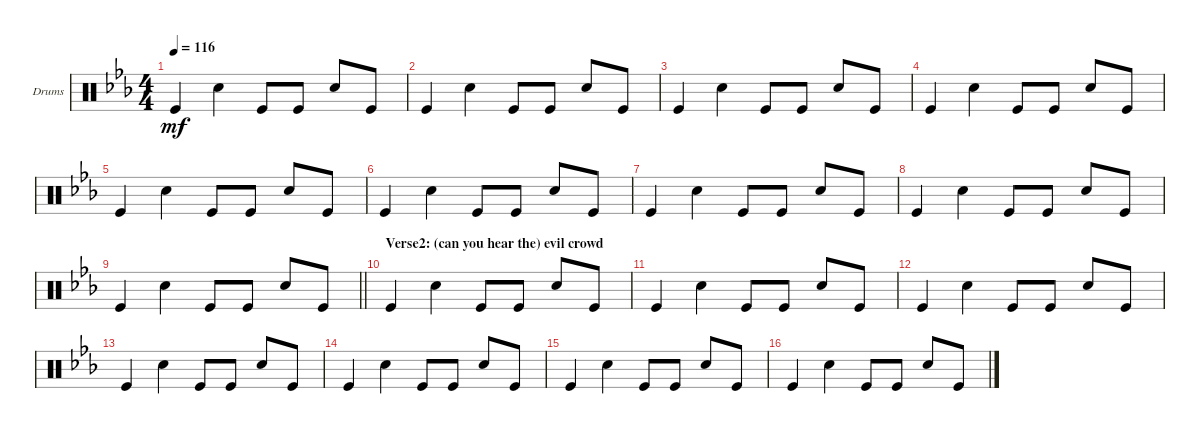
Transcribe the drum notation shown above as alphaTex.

\defaultSystemsLayout 4
\bracketExtendMode groupsimilarinstruments
\firstSystemTrackNameOrientation horizontal
\otherSystemsTrackNameOrientation horizontal
\track ("Drumkit" "Drums") {instrument percussion}
\staff {score}
\articulation defaults
\ts (4 4)
\scale
0.239045
\tempo 116
\accidentals auto
\clef neutral
\ottava regular
\simile none
\ks cminor "Kick (hit)".4{dy mf} "Snare (hit) 2".4 "Kick (hit)".8 "Kick (hit)".8 "Snare (hit) 2".8 "Kick (hit)".8
|
"Kick (hit)".4 "Snare (hit) 2".4 "Kick (hit)".8 "Kick (hit)".8 "Snare (hit) 2".8 "Kick (hit)".8 |
"Kick (hit)".4 "Snare (hit) 2".4 "Kick (hit)".8 "Kick (hit)".8 "Snare (hit) 2".8 "Kick (hit)".8 |
"Kick (hit)".4 "Snare (hit) 2".4 "Kick (hit)".8 "Kick (hit)".8 "Snare (hit) 2".8 "Kick (hit)".8 |
\scale
0.316159 "Kick (hit)".4 "Snare (hit) 2".4 "Kick (hit)".8 "Kick (hit)".8 "Snare (hit) 2".8 "Kick (hit)".8 |
\scale
0.208514 "Kick (hit)".4 "Snare (hit) 2".4 "Kick (hit)".8 "Kick (hit)".8 "Snare (hit) 2".8 "Kick (hit)".8 |
\scale
0.280453 "Kick (hit)".4 "Snare (hit) 2".4 "Kick (hit)".8 "Kick (hit)".8 "Snare (hit) 2".8 "Kick (hit)".8 |
\scale
0.194849 "Kick (hit)".4 "Snare (hit) 2".4 "Kick (hit)".8 "Kick (hit)".8 "Snare (hit) 2".8 "Kick (hit)".8 |
\barLineRight lightlight "Kick (hit)".4 "Snare (hit) 2".4 "Kick (hit)".8 "Kick (hit)".8 "Snare (hit) 2".8 "Kick (hit)".8
|
\section ("" "Verse2: (can you hear the) evil crowd")
"Kick (hit)".4 "Snare (hit) 2".4 "Kick (hit)".8 "Kick (hit)".8 "Snare (hit) 2".8 "Kick (hit)".8 |
"Kick (hit)".4 "Snare (hit) 2".4 "Kick (hit)".8 "Kick (hit)".8 "Snare (hit) 2".8 "Kick (hit)".8 |
\scale
0.391181 "Kick (hit)".4 "Snare (hit) 2".4 "Kick (hit)".8 "Kick (hit)".8 "Snare (hit) 2".8 "Kick (hit)".8 |
\scale
0.203763 "Kick (hit)".4 "Snare (hit) 2".4 "Kick (hit)".8 "Kick (hit)".8 "Snare (hit) 2".8 "Kick (hit)".8 |
\scale
0.232089 "Kick (hit)".4 "Snare (hit) 2".4 "Kick (hit)".8 "Kick (hit)".8 "Snare (hit) 2".8 "Kick (hit)".8 |
\scale
0.172773 "Kick (hit)".4 "Snare (hit) 2".4 "Kick (hit)".8 "Kick (hit)".8 "Snare (hit) 2".8 "Kick (hit)".8 |
"Kick (hit)".4 "Snare (hit) 2".4 "Kick (hit)".8 "Kick (hit)".8 "Snare (hit) 2".8 "Kick (hit)".8
